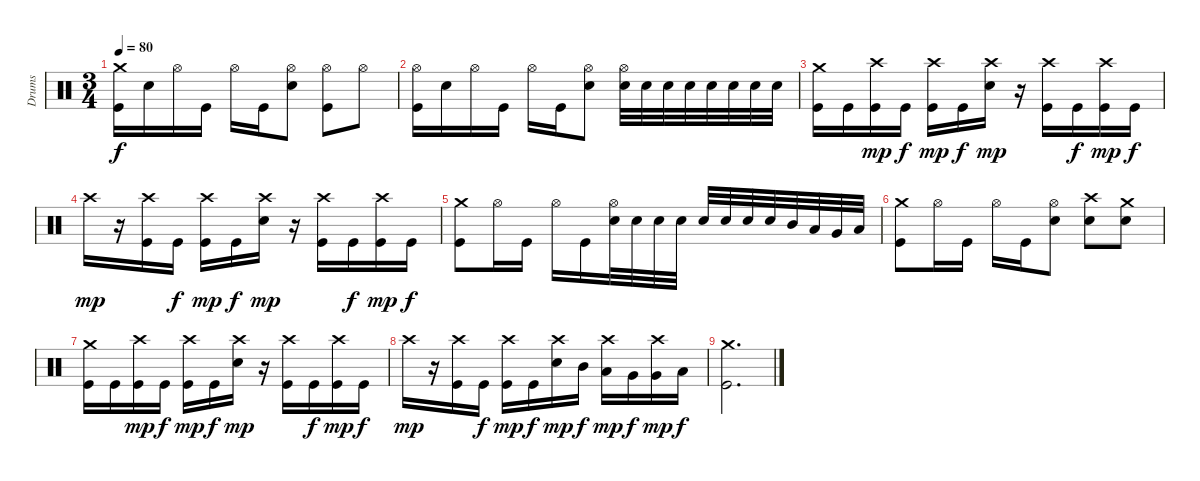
\track ("Drums" "Drums") {instrument percussion}
\staff {score}
\articulation defaults
\ts (3 4)
\tempo 80
\clef neutral
\ks c
("Crash medium (hit)" "Kick (hit)").16{dy f} "Electric Snare (hit)".16 "Hi-Hat (open)".16 "Kick (hit)".16 "Hi-Hat (open)".16 "Kick (hit)".16 ("Hi-Hat (open)" "Electric Snare (hit)").8 ("Hi-Hat (open)" "Kick (hit)").8 "Hi-Hat (open)".8 |
("Hi-Hat (open)" "Kick (hit)").16 "Electric Snare (hit)".16 "Hi-Hat (open)".16 "Kick (hit)".16 "Hi-Hat (open)".16 "Kick (hit)".16 ("Hi-Hat (open)" "Electric Snare (hit)").8 ("Hi-Hat (open)" "Electric Snare (hit)").32 "Electric Snare (hit)".32 "Electric Snare (hit)".32 "Electric Snare (hit)".32 "Electric Snare (hit)".32 "Electric Snare (hit)".32 "Electric Snare (hit)".32 "Electric Snare (hit)".32 |
("Crash medium (hit)" "Kick (hit)").16 "Kick (hit)".16 ("Crash high (hit)" "Kick (hit)").16{dy mp} "Kick (hit)".16{dy f} ("Crash high (hit)" "Kick (hit)").16{dy mp} "Kick (hit)".16{dy f} ("Crash high (hit)" "Electric Snare (hit)").16{dy mp} r.16 ("Crash high (hit)" "Kick (hit)").16 "Kick (hit)".16{dy f} ("Crash high (hit)" "Kick (hit)").16{dy mp} "Kick (hit)".16{dy f} |
"Crash high (hit)".16{dy mp} r.16 ("Crash high (hit)" "Kick (hit)").16 "Kick (hit)".16{dy f} ("Crash high (hit)" "Kick (hit)").16{dy mp} "Kick (hit)".16{dy f} ("Crash high (hit)" "Electric Snare (hit)").16{dy mp} r.16 ("Crash high (hit)" "Kick (hit)").16 "Kick (hit)".16{dy f} ("Crash high (hit)" "Kick (hit)").16{dy mp} "Kick (hit)".16{dy f} |
("Crash medium (hit)" "Kick (hit)").8 "Hi-Hat (open)".16 "Kick (hit)".16 "Hi-Hat (open)".16 "Kick (hit)".16 ("Hi-Hat (open)" "Electric Snare (hit)").32 "Electric Snare (hit)".32 "Electric Snare (hit)".32 "Electric Snare (hit)".32 "Electric Snare (hit)".32 "Electric Snare (hit)".32 "Electric Snare (hit)".32 "Electric Snare (hit)".32 "Mid Tom (hit)".32 "Low Tom (hit)".32 "Very Low Tom (hit)".32 "Low Floor Tom (hit)".32 |
("Crash medium (hit)" "Kick (hit)").8 "Hi-Hat (open)".16 "Kick (hit)".16 "Hi-Hat (open)".16 "Kick (hit)".16 ("Hi-Hat (open)" "Electric Snare (hit)").8 ("Crash high (hit)" "Electric Snare (hit)").8 ("Crash medium (hit)" "Electric Snare (hit)").8 |
("Crash medium (hit)" "Kick (hit)").16 "Kick (hit)".16 ("Crash high (hit)" "Kick (hit)").16{dy mp} "Kick (hit)".16{dy f} ("Crash high (hit)" "Kick (hit)").16{dy mp} "Kick (hit)".16{dy f} ("Crash high (hit)" "Electric Snare (hit)").16{dy mp} r.16 ("Crash high (hit)" "Kick (hit)").16 "Kick (hit)".16{dy f} ("Crash high (hit)" "Kick (hit)").16{dy mp} "Kick (hit)".16{dy f} |
"Crash high (hit)".16{dy mp} r.16 ("Crash high (hit)" "Kick (hit)").16 "Kick (hit)".16{dy f} ("Crash high (hit)" "Kick (hit)").16{dy mp} "Kick (hit)".16{dy f} ("Crash high (hit)" "Electric Snare (hit)").16{dy mp} "Mid Tom (hit)".16{dy f} ("Crash high (hit)" "Low Tom (hit)").16{dy mp} "Very Low Tom (hit)".16{dy f} ("Crash high (hit)" "Very Low Tom (hit)").16{dy mp} "Low Floor Tom (hit)".16{dy f} |
("Crash medium (hit)" "Kick (hit)").2{d}
